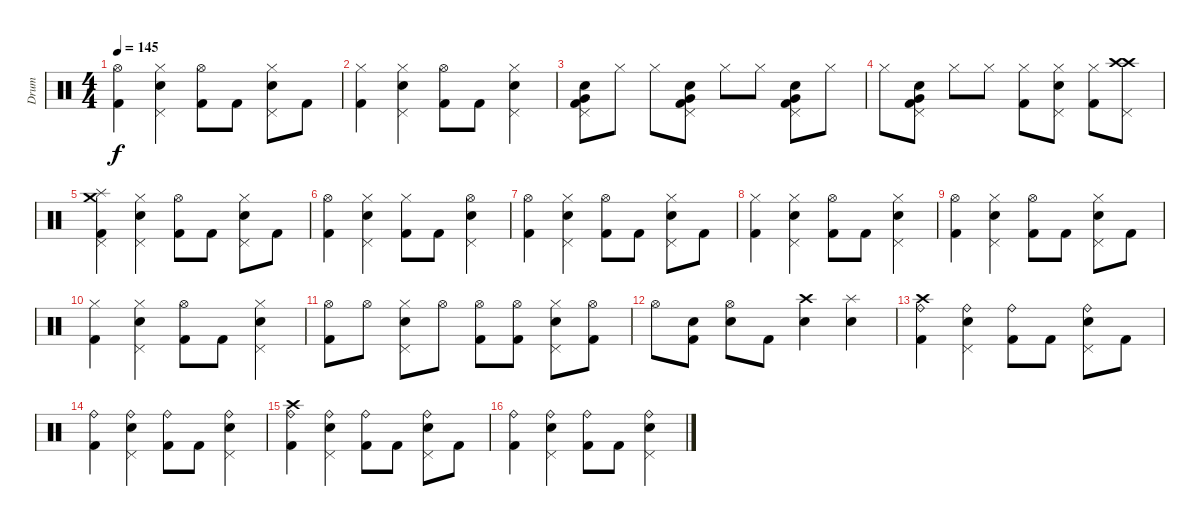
\track ("Drum" "Drum") {instrument percussion}
\staff {score}
\articulation defaults
\ts (4 4)
\tempo 145
\clef neutral
\ks c
("Hi-Hat (open)" "Kick (hit) 2").4{dy f} ("Hi-Hat (closed)" "Snare (hit) 2" "Pedal Hi-Hat (hit)").4 ("Hi-Hat (open)" "Kick (hit) 2").8 "Kick (hit) 2".8 ("Hi-Hat (closed)" "Snare (hit) 2" "Pedal Hi-Hat (hit)").8 "Kick (hit) 2".8 |
("Hi-Hat (closed)" "Kick (hit) 2").4 ("Hi-Hat (closed)" "Snare (hit) 2" "Pedal Hi-Hat (hit)").4 ("Hi-Hat (open)" "Kick (hit) 2").8 "Kick (hit) 2".8 ("Hi-Hat (closed)" "Snare (hit) 2" "Pedal Hi-Hat (hit)").4 |
("Very Low Tom (hit)" "Snare (hit) 2" "Kick (hit) 2" "Pedal Hi-Hat (hit)").8 "Hi-Hat (closed)".8 "Hi-Hat (closed)".8 ("Very Low Tom (hit)" "Snare (hit) 2" "Kick (hit) 2" "Pedal Hi-Hat (hit)").8 "Hi-Hat (closed)".8 "Hi-Hat (closed)".8 ("Very Low Tom (hit)" "Snare (hit) 2" "Kick (hit) 2" "Pedal Hi-Hat (hit)").8 "Hi-Hat (closed)".8 |
"Hi-Hat (closed)".8 ("Very Low Tom (hit)" "Snare (hit) 2" "Kick (hit) 2" "Pedal Hi-Hat (hit)").8 "Hi-Hat (closed)".8 "Hi-Hat (closed)".8 ("Hi-Hat (closed)" "Kick (hit) 2").8 ("Hi-Hat (closed)" "Snare (hit) 2" "Pedal Hi-Hat (hit)").8 ("Hi-Hat (closed)" "Kick (hit) 2").8 ("Crash high (hit)" "Crash high (hit)" "Pedal Hi-Hat (hit)").8 |
("Splash (hit)" "Crash medium (hit)" "Kick (hit) 2" "Pedal Hi-Hat (hit)").4 ("Hi-Hat (closed)" "Snare (hit) 2" "Pedal Hi-Hat (hit)").4 ("Hi-Hat (open)" "Kick (hit) 2").8 "Kick (hit) 2".8 ("Hi-Hat (closed)" "Snare (hit) 2" "Pedal Hi-Hat (hit)").8 "Kick (hit) 2".8 |
("Hi-Hat (open)" "Kick (hit) 2").4 ("Hi-Hat (closed)" "Snare (hit) 2" "Pedal Hi-Hat (hit)").4 ("Hi-Hat (closed)" "Kick (hit) 2").8 "Kick (hit) 2".8 ("Hi-Hat (open)" "Snare (hit) 2" "Pedal Hi-Hat (hit)").4 |
("Hi-Hat (open)" "Kick (hit) 2").4 ("Hi-Hat (closed)" "Snare (hit) 2" "Pedal Hi-Hat (hit)").4 ("Hi-Hat (open)" "Kick (hit) 2").8 "Kick (hit) 2".8 ("Hi-Hat (closed)" "Snare (hit) 2" "Pedal Hi-Hat (hit)").8 "Kick (hit) 2".8 |
("Hi-Hat (closed)" "Kick (hit) 2").4 ("Hi-Hat (closed)" "Snare (hit) 2" "Pedal Hi-Hat (hit)").4 ("Hi-Hat (open)" "Kick (hit) 2").8 "Kick (hit) 2".8 ("Hi-Hat (closed)" "Snare (hit) 2" "Pedal Hi-Hat (hit)").4 |
("Hi-Hat (open)" "Kick (hit) 2").4 ("Hi-Hat (closed)" "Snare (hit) 2" "Pedal Hi-Hat (hit)").4 ("Hi-Hat (open)" "Kick (hit) 2").8 "Kick (hit) 2".8 ("Hi-Hat (closed)" "Snare (hit) 2" "Pedal Hi-Hat (hit)").8 "Kick (hit) 2".8 |
("Hi-Hat (closed)" "Kick (hit) 2").4 ("Hi-Hat (closed)" "Snare (hit) 2" "Pedal Hi-Hat (hit)").4 ("Hi-Hat (open)" "Kick (hit) 2").8 "Kick (hit) 2".8 ("Hi-Hat (closed)" "Snare (hit) 2" "Pedal Hi-Hat (hit)").4 |
("Hi-Hat (open)" "Kick (hit) 2").8 "Hi-Hat (open)".8 ("Hi-Hat (closed)" "Snare (hit) 2" "Pedal Hi-Hat (hit)").8 "Hi-Hat (open)".8 ("Hi-Hat (open)" "Kick (hit) 2").8 ("Hi-Hat (open)" "Kick (hit) 2").8 ("Hi-Hat (closed)" "Snare (hit) 2" "Pedal Hi-Hat (hit)").8 ("Hi-Hat (open)" "Kick (hit) 2").8 |
"Hi-Hat (open)".8 ("Snare (hit) 2" "Kick (hit) 2").8 ("Hi-Hat (open)" "Snare (hit) 2").8 "Kick (hit) 2".8 ("Crash high (hit)" "Snare (hit) 2").4 ("Splash (hit)" "Snare (hit) 2").4 |
("Ride (bell)" "Crash high (hit)" "Kick (hit) 2").4 ("Ride (bell)" "Snare (hit) 2" "Pedal Hi-Hat (hit)").4 ("Ride (bell)" "Kick (hit) 2").8 "Kick (hit) 2".8 ("Ride (bell)" "Snare (hit) 2" "Pedal Hi-Hat (hit)").8 "Kick (hit) 2".8 |
("Ride (bell)" "Kick (hit) 2").4 ("Ride (bell)" "Snare (hit) 2" "Pedal Hi-Hat (hit)").4 ("Ride (bell)" "Kick (hit) 2").8 "Kick (hit) 2".8 ("Ride (bell)" "Snare (hit) 2" "Pedal Hi-Hat (hit)").4 |
("Ride (bell)" "Crash high (hit)" "Kick (hit) 2").4 ("Ride (bell)" "Snare (hit) 2" "Pedal Hi-Hat (hit)").4 ("Ride (bell)" "Kick (hit) 2").8 "Kick (hit) 2".8 ("Ride (bell)" "Snare (hit) 2" "Pedal Hi-Hat (hit)").8 "Kick (hit) 2".8 |
("Ride (bell)" "Kick (hit) 2").4 ("Ride (bell)" "Snare (hit) 2" "Pedal Hi-Hat (hit)").4 ("Ride (bell)" "Kick (hit) 2").8 "Kick (hit) 2".8 ("Ride (bell)" "Snare (hit) 2" "Pedal Hi-Hat (hit)").4
